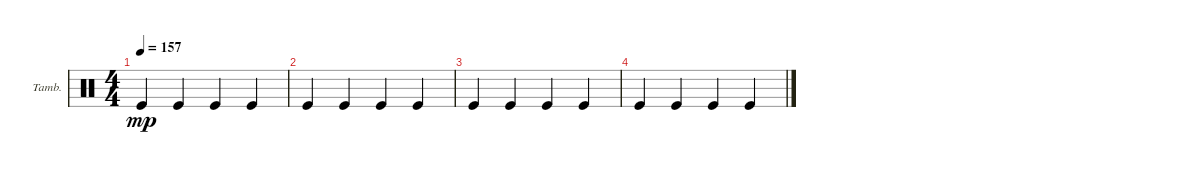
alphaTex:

\defaultSystemsLayout 4
\bracketExtendMode groupsimilarinstruments
\firstSystemTrackNameOrientation horizontal
\otherSystemsTrackNameOrientation horizontal
\track ("Tambourine" "Tamb.") {instrument percussion}
\staff {score}
\articulation defaults
\ts (4 4)
\tempo 157
\clef neutral
\ks c "Kick (hit)".4{dy mp} "Kick (hit)".4 "Kick (hit)".4 "Kick (hit)".4
|
"Kick (hit)".4 "Kick (hit)".4 "Kick (hit)".4 "Kick (hit)".4 |
"Kick (hit)".4 "Kick (hit)".4 "Kick (hit)".4 "Kick (hit)".4 |
"Kick (hit)".4 "Kick (hit)".4 "Kick (hit)".4 "Kick (hit)".4
